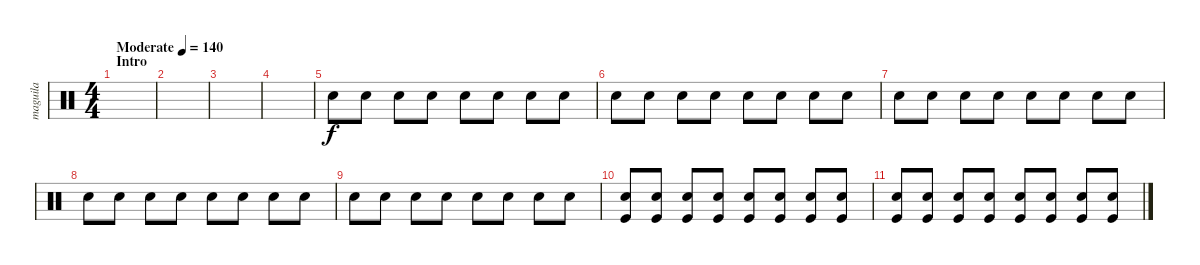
\track ("maguila" "maguila") {instrument percussion}
\staff {score}
\articulation defaults
\ts (4 4)
\section ("" "Intro")
\tempo (140 "Moderate")
\clef neutral
\ks c
|
|
|
|
"Snare (hit) 2".8{volume 5} "Snare (hit) 2".8 "Snare (hit) 2".8 "Snare (hit) 2".8 "Snare (hit) 2".8 "Snare (hit) 2".8 "Snare (hit) 2".8 "Snare (hit) 2".8 |
"Snare (hit) 2".8{volume 6} "Snare (hit) 2".8 "Snare (hit) 2".8 "Snare (hit) 2".8 "Snare (hit) 2".8 "Snare (hit) 2".8 "Snare (hit) 2".8 "Snare (hit) 2".8 |
"Snare (hit) 2".8 "Snare (hit) 2".8{volume 7} "Snare (hit) 2".8 "Snare (hit) 2".8 "Snare (hit) 2".8 "Snare (hit) 2".8 "Snare (hit) 2".8 "Snare (hit) 2".8 |
"Snare (hit) 2".8 "Snare (hit) 2".8 "Snare (hit) 2".8 "Snare (hit) 2".8{volume 8} "Snare (hit) 2".8 "Snare (hit) 2".8 "Snare (hit) 2".8 "Snare (hit) 2".8 |
"Snare (hit) 2".8 "Snare (hit) 2".8 "Snare (hit) 2".8 "Snare (hit) 2".8 "Snare (hit) 2".8 "Snare (hit) 2".8{volume 9} "Snare (hit) 2".8{volume 12} "Snare (hit) 2".8 |
("Snare (hit) 2" "Kick (hit)").8{volume 16} ("Snare (hit) 2" "Kick (hit)").8 ("Snare (hit) 2" "Kick (hit)").8 ("Snare (hit) 2" "Kick (hit)").8 ("Snare (hit) 2" "Kick (hit)").8{volume 13} ("Snare (hit) 2" "Kick (hit)").8 ("Snare (hit) 2" "Kick (hit)").8 ("Snare (hit) 2" "Kick (hit)").8 |
("Snare (hit) 2" "Kick (hit)").8{volume 16} ("Snare (hit) 2" "Kick (hit)").8 ("Snare (hit) 2" "Kick (hit)").8{volume 16} ("Snare (hit) 2" "Kick (hit)").8 ("Snare (hit) 2" "Kick (hit)").8 ("Snare (hit) 2" "Kick (hit)").8 ("Snare (hit) 2" "Kick (hit)").8 ("Snare (hit) 2" "Kick (hit)").8
